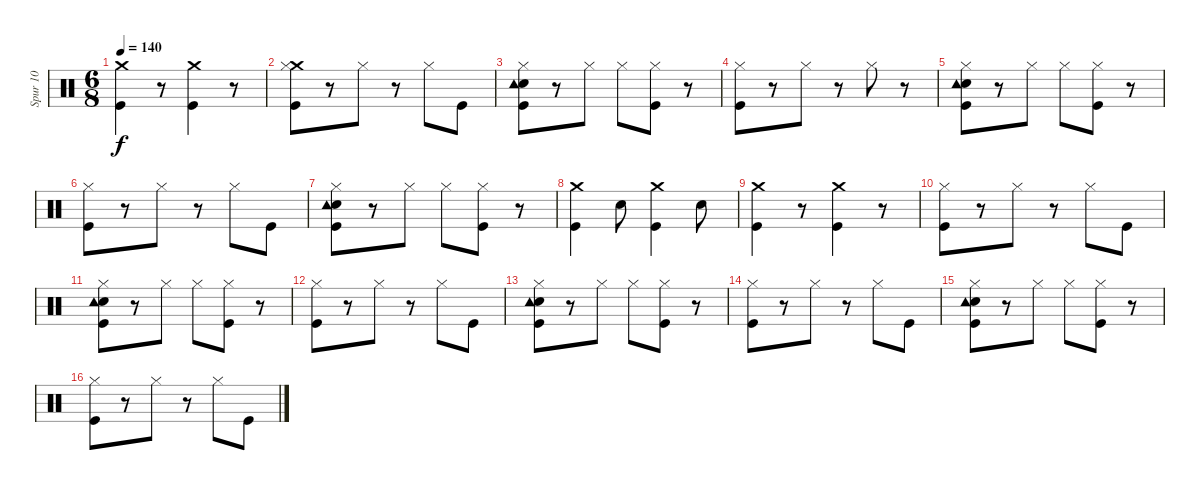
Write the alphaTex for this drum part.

\track ("Spur 10" "Spur 10") {instrument percussion}
\staff {score}
\articulation defaults
\ts (6 8)
\tempo 140
\clef neutral
\ks c
("Kick (hit)" "Crash medium (hit)").4{dy f} r.8 ("Kick (hit)" "Crash medium (hit)").4 r.8 |
("Crash medium (hit)" "Kick (hit)" "Hi-Hat (closed)").8 r.8 "Hi-Hat (closed)".8 r.8 "Hi-Hat (closed)".8 "Kick (hit)".8 |
("Kick (hit)" "Snare (hit) 2" "Tambourine (hit)" "Hi-Hat (closed)").8 r.8 "Hi-Hat (closed)".8 "Hi-Hat (closed)".8 ("Kick (hit)" "Hi-Hat (closed)").8 r.8 |
("Kick (hit)" "Hi-Hat (closed)").8 r.8 "Hi-Hat (closed)".8 r.8 "Hi-Hat (closed)".8 r.8 |
("Kick (hit)" "Snare (hit) 2" "Tambourine (hit)" "Hi-Hat (closed)").8 r.8 "Hi-Hat (closed)".8 "Hi-Hat (closed)".8 ("Kick (hit)" "Hi-Hat (closed)").8 r.8 |
("Kick (hit)" "Hi-Hat (closed)").8 r.8 "Hi-Hat (closed)".8 r.8 "Hi-Hat (closed)".8 "Kick (hit)".8 |
("Kick (hit)" "Snare (hit) 2" "Tambourine (hit)" "Hi-Hat (closed)").8 r.8 "Hi-Hat (closed)".8 "Hi-Hat (closed)".8 ("Kick (hit)" "Hi-Hat (closed)").8 r.8 |
("Kick (hit)" "Crash medium (hit)").4 "Snare (hit) 2".8 ("Kick (hit)" "Crash medium (hit)").4 "Snare (hit) 2".8 |
("Kick (hit)" "Crash medium (hit)").4 r.8 ("Kick (hit)" "Crash medium (hit)").4 r.8 |
("Kick (hit)" "Hi-Hat (closed)").8 r.8 "Hi-Hat (closed)".8 r.8 "Hi-Hat (closed)".8 "Kick (hit)".8 |
("Kick (hit)" "Snare (hit) 2" "Tambourine (hit)" "Hi-Hat (closed)").8 r.8 "Hi-Hat (closed)".8 "Hi-Hat (closed)".8 ("Kick (hit)" "Hi-Hat (closed)").8 r.8 |
("Kick (hit)" "Hi-Hat (closed)").8 r.8 "Hi-Hat (closed)".8 r.8 "Hi-Hat (closed)".8 "Kick (hit)".8 |
("Kick (hit)" "Snare (hit) 2" "Tambourine (hit)" "Hi-Hat (closed)").8 r.8 "Hi-Hat (closed)".8 "Hi-Hat (closed)".8 ("Kick (hit)" "Hi-Hat (closed)").8 r.8 |
("Kick (hit)" "Hi-Hat (closed)").8 r.8 "Hi-Hat (closed)".8 r.8 "Hi-Hat (closed)".8 "Kick (hit)".8 |
("Kick (hit)" "Snare (hit) 2" "Tambourine (hit)" "Hi-Hat (closed)").8 r.8 "Hi-Hat (closed)".8 "Hi-Hat (closed)".8 ("Kick (hit)" "Hi-Hat (closed)").8 r.8 |
("Kick (hit)" "Hi-Hat (closed)").8 r.8 "Hi-Hat (closed)".8 r.8 "Hi-Hat (closed)".8 "Kick (hit)".8
